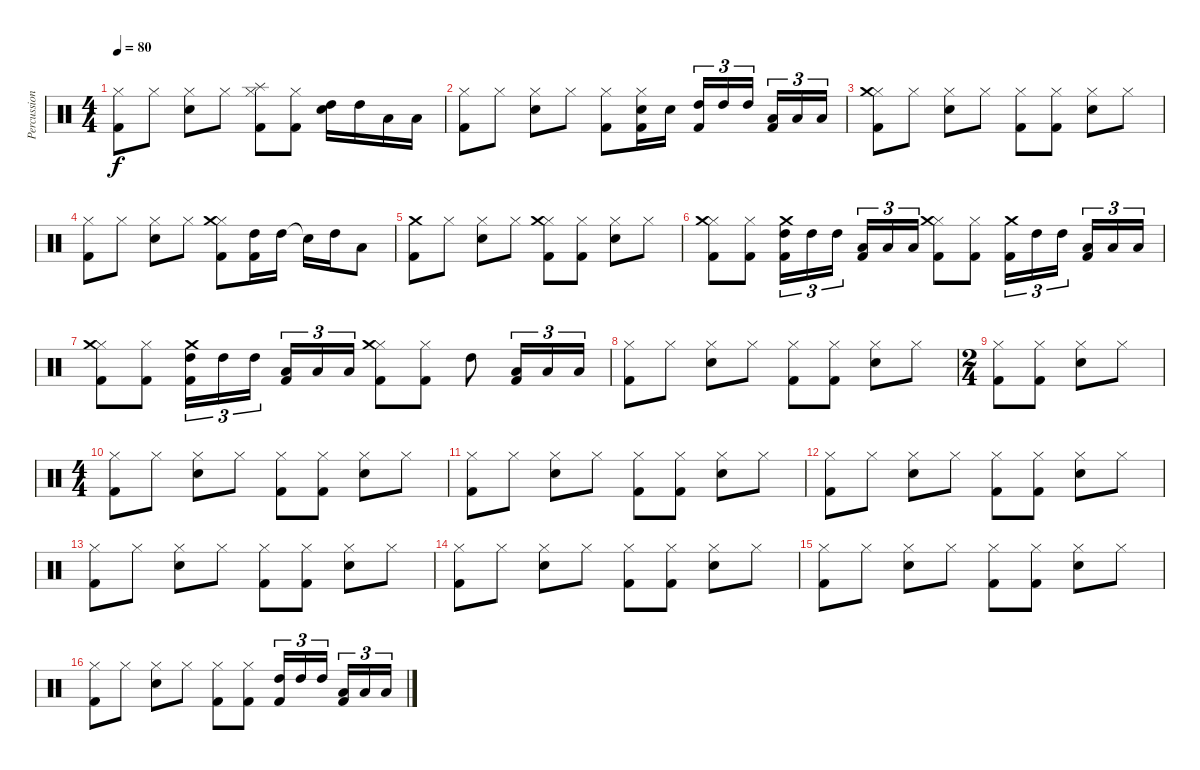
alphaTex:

\track ("Percussion" "Percussion") {instrument percussion}
\staff {score}
\articulation defaults
\ts (4 4)
\tempo 80
\clef neutral
\ks c
("Hi-Hat (closed)" "Kick (hit) 2").8{dy f} "Hi-Hat (closed)".8 ("Hi-Hat (closed)" "Snare (hit) 2").8 "Hi-Hat (closed)".8 ("Hi-Hat (closed)" "Kick (hit) 2" "Splash (hit)").8 ("Hi-Hat (closed)" "Kick (hit) 2").8 ("High Tom (hit)" "Snare (hit) 2").16 "High Tom (hit)".16 "Low Tom (hit)".16 "Low Tom (hit)".16 |
("Hi-Hat (closed)" "Kick (hit) 2").8 "Hi-Hat (closed)".8 ("Hi-Hat (closed)" "Snare (hit) 2").8 "Hi-Hat (closed)".8 ("Hi-Hat (closed)" "Kick (hit) 2").8 ("Hi-Hat (closed)" "Kick (hit) 2" "Snare (hit) 2").16 "Snare (hit) 2".16 ("High Tom (hit)" "Kick (hit) 2").16{tu (3 2)} "High Tom (hit)".16{tu (3 2)} "High Tom (hit)".16{tu (3 2)} ("Low Tom (hit)" "Kick (hit) 2").16{tu (3 2)} "Low Tom (hit)".16{tu (3 2)} "Low Tom (hit)".16{tu (3 2)} |
("Hi-Hat (closed)" "Kick (hit) 2" "Crash medium (hit)").8 "Hi-Hat (closed)".8 ("Hi-Hat (closed)" "Snare (hit) 2").8 "Hi-Hat (closed)".8 ("Hi-Hat (closed)" "Kick (hit) 2").8 ("Hi-Hat (closed)" "Kick (hit) 2").8 ("Hi-Hat (closed)" "Snare (hit) 2").8 "Hi-Hat (closed)".8 |
("Hi-Hat (closed)" "Kick (hit) 2").8 "Hi-Hat (closed)".8 ("Hi-Hat (closed)" "Snare (hit) 2").8 "Hi-Hat (closed)".8 ("Hi-Hat (closed)" "Kick (hit) 2" "Crash medium (hit)").8 ("High Tom (hit)" "Kick (hit) 2").16 "High Tom (hit)".16 "Snare (hit)"{t}.16 "High Tom (hit)".16 "Low Tom (hit)".8 |
("Crash medium (hit)" "Kick (hit) 2").8 "Hi-Hat (closed)".8 ("Hi-Hat (closed)" "Snare (hit) 2").8 "Hi-Hat (closed)".8 ("Hi-Hat (closed)" "Kick (hit) 2" "Crash medium (hit)").8 ("Hi-Hat (closed)" "Kick (hit) 2").8 ("Hi-Hat (closed)" "Snare (hit) 2").8 "Hi-Hat (closed)".8 |
("Hi-Hat (closed)" "Kick (hit) 2" "Crash medium (hit)").8 ("Hi-Hat (closed)" "Kick (hit) 2").8 ("High Tom (hit)" "Kick (hit) 2" "Crash medium (hit)").16{tu (3 2)} "High Tom (hit)".16{tu (3 2)} "High Tom (hit)".16{tu (3 2)} ("Low Tom (hit)" "Kick (hit) 2").16{tu (3 2)} "Low Tom (hit)".16{tu (3 2)} "Low Tom (hit)".16{tu (3 2)} ("Hi-Hat (closed)" "Kick (hit) 2" "Crash medium (hit)").8 ("Hi-Hat (closed)" "Kick (hit) 2").8 ("Kick (hit) 2" "Crash medium (hit)").16{tu (3 2)} "High Tom (hit)".16{tu (3 2)} "High Tom (hit)".16{tu (3 2)} ("Low Tom (hit)" "Kick (hit) 2").16{tu (3 2)} "Low Tom (hit)".16{tu (3 2)} "Low Tom (hit)".16{tu (3 2)} |
("Hi-Hat (closed)" "Kick (hit) 2" "Crash medium (hit)").8 ("Hi-Hat (closed)" "Kick (hit) 2").8 ("High Tom (hit)" "Kick (hit) 2" "Crash medium (hit)").16{tu (3 2)} "High Tom (hit)".16{tu (3 2)} "High Tom (hit)".16{tu (3 2)} ("Low Tom (hit)" "Kick (hit) 2").16{tu (3 2)} "Low Tom (hit)".16{tu (3 2)} "Low Tom (hit)".16{tu (3 2)} ("Hi-Hat (closed)" "Kick (hit) 2" "Crash medium (hit)").8 ("Hi-Hat (closed)" "Kick (hit) 2").8 "High Tom (hit)".8 ("Low Tom (hit)" "Kick (hit) 2").16{tu (3 2)} "Low Tom (hit)".16{tu (3 2)} "Low Tom (hit)".16{tu (3 2)} |
("Hi-Hat (closed)" "Kick (hit) 2").8 "Hi-Hat (closed)".8 ("Hi-Hat (closed)" "Snare (hit) 2").8 "Hi-Hat (closed)".8 ("Hi-Hat (closed)" "Kick (hit) 2").8 ("Hi-Hat (closed)" "Kick (hit) 2").8 ("Hi-Hat (closed)" "Snare (hit) 2").8 "Hi-Hat (closed)".8 |
\ts (2 4)
("Hi-Hat (closed)" "Kick (hit) 2").8 ("Hi-Hat (closed)" "Kick (hit) 2").8 ("Hi-Hat (closed)" "Snare (hit) 2").8 "Hi-Hat (closed)".8 |
\ts (4 4)
("Hi-Hat (closed)" "Kick (hit) 2").8 "Hi-Hat (closed)".8 ("Hi-Hat (closed)" "Snare (hit) 2").8 "Hi-Hat (closed)".8 ("Hi-Hat (closed)" "Kick (hit) 2").8 ("Hi-Hat (closed)" "Kick (hit) 2").8 ("Hi-Hat (closed)" "Snare (hit) 2").8 "Hi-Hat (closed)".8 |
("Hi-Hat (closed)" "Kick (hit) 2").8 "Hi-Hat (closed)".8 ("Hi-Hat (closed)" "Snare (hit) 2").8 "Hi-Hat (closed)".8 ("Hi-Hat (closed)" "Kick (hit) 2").8 ("Hi-Hat (closed)" "Kick (hit) 2").8 ("Hi-Hat (closed)" "Snare (hit) 2").8 "Hi-Hat (closed)".8 |
("Hi-Hat (closed)" "Kick (hit) 2").8 "Hi-Hat (closed)".8 ("Hi-Hat (closed)" "Snare (hit) 2").8 "Hi-Hat (closed)".8 ("Hi-Hat (closed)" "Kick (hit) 2").8 ("Hi-Hat (closed)" "Kick (hit) 2").8 ("Hi-Hat (closed)" "Snare (hit) 2").8 "Hi-Hat (closed)".8 |
("Hi-Hat (closed)" "Kick (hit) 2").8 "Hi-Hat (closed)".8 ("Hi-Hat (closed)" "Snare (hit) 2").8 "Hi-Hat (closed)".8 ("Hi-Hat (closed)" "Kick (hit) 2").8 ("Hi-Hat (closed)" "Kick (hit) 2").8 ("Hi-Hat (closed)" "Snare (hit) 2").8 "Hi-Hat (closed)".8 |
("Hi-Hat (closed)" "Kick (hit) 2").8 "Hi-Hat (closed)".8 ("Hi-Hat (closed)" "Snare (hit) 2").8 "Hi-Hat (closed)".8 ("Hi-Hat (closed)" "Kick (hit) 2").8 ("Hi-Hat (closed)" "Kick (hit) 2").8 ("Hi-Hat (closed)" "Snare (hit) 2").8 "Hi-Hat (closed)".8 |
("Hi-Hat (closed)" "Kick (hit) 2").8 "Hi-Hat (closed)".8 ("Hi-Hat (closed)" "Snare (hit) 2").8 "Hi-Hat (closed)".8 ("Hi-Hat (closed)" "Kick (hit) 2").8 ("Hi-Hat (closed)" "Kick (hit) 2").8 ("Hi-Hat (closed)" "Snare (hit) 2").8 "Hi-Hat (closed)".8 |
("Hi-Hat (closed)" "Kick (hit) 2").8 "Hi-Hat (closed)".8 ("Hi-Hat (closed)" "Snare (hit) 2").8 "Hi-Hat (closed)".8 ("Hi-Hat (closed)" "Kick (hit) 2").8 ("Hi-Hat (closed)" "Kick (hit) 2").8 ("High Tom (hit)" "Kick (hit) 2").16{tu (3 2)} "High Tom (hit)".16{tu (3 2)} "High Tom (hit)".16{tu (3 2)} ("Low Tom (hit)" "Kick (hit) 2").16{tu (3 2)} "Low Tom (hit)".16{tu (3 2)} "Low Tom (hit)".16{tu (3 2)}
